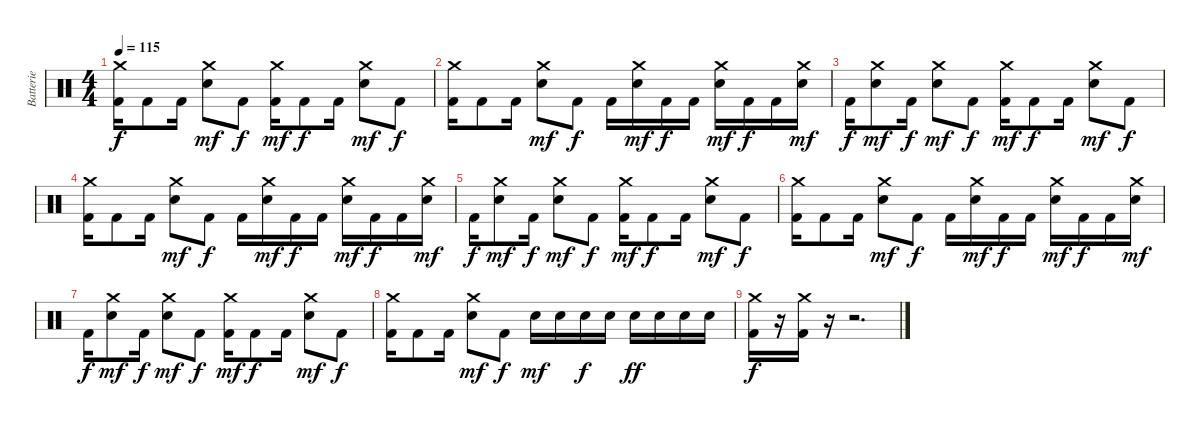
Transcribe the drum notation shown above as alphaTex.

\track ("Batterie" "Batterie") {instrument percussion}
\staff {score}
\articulation defaults
\ts (4 4)
\tempo 115
\clef neutral
\ks c
("Crash medium (hit)" "Kick (hit) 2").16{dy f} "Kick (hit) 2".8 "Kick (hit) 2".16 ("Crash medium (hit)" "Electric Snare (hit)").8{dy mf} "Kick (hit) 2".8{dy f} ("Crash medium (hit)" "Kick (hit) 2").16{dy mf} "Kick (hit) 2".8{dy f} "Kick (hit) 2".16 ("Crash medium (hit)" "Electric Snare (hit)").8{dy mf} "Kick (hit) 2".8{dy f} |
("Crash medium (hit)" "Kick (hit) 2").16 "Kick (hit) 2".8 "Kick (hit) 2".16 ("Crash medium (hit)" "Electric Snare (hit)").8{dy mf} "Kick (hit) 2".8{dy f} "Kick (hit) 2".16 ("Crash medium (hit)" "Electric Snare (hit)").16{dy mf} "Kick (hit) 2".16{dy f} "Kick (hit) 2".16 ("Crash medium (hit)" "Electric Snare (hit)").16{dy mf} "Kick (hit) 2".16{dy f} "Kick (hit) 2".16 ("Crash medium (hit)" "Electric Snare (hit)").16{dy mf} |
"Kick (hit) 2".16{dy f} ("Crash medium (hit)" "Electric Snare (hit)").8{dy mf} "Kick (hit) 2".16{dy f} ("Crash medium (hit)" "Electric Snare (hit)").8{dy mf} "Kick (hit) 2".8{dy f} ("Crash medium (hit)" "Kick (hit) 2").16{dy mf} "Kick (hit) 2".8{dy f} "Kick (hit) 2".16 ("Crash medium (hit)" "Electric Snare (hit)").8{dy mf} "Kick (hit) 2".8{dy f} |
("Crash medium (hit)" "Kick (hit) 2").16 "Kick (hit) 2".8 "Kick (hit) 2".16 ("Crash medium (hit)" "Electric Snare (hit)").8{dy mf} "Kick (hit) 2".8{dy f} "Kick (hit) 2".16 ("Crash medium (hit)" "Electric Snare (hit)").16{dy mf} "Kick (hit) 2".16{dy f} "Kick (hit) 2".16 ("Crash medium (hit)" "Electric Snare (hit)").16{dy mf} "Kick (hit) 2".16{dy f} "Kick (hit) 2".16 ("Crash medium (hit)" "Electric Snare (hit)").16{dy mf} |
"Kick (hit) 2".16{dy f} ("Crash medium (hit)" "Electric Snare (hit)").8{dy mf} "Kick (hit) 2".16{dy f} ("Crash medium (hit)" "Electric Snare (hit)").8{dy mf} "Kick (hit) 2".8{dy f} ("Crash medium (hit)" "Kick (hit) 2").16{dy mf} "Kick (hit) 2".8{dy f} "Kick (hit) 2".16 ("Crash medium (hit)" "Electric Snare (hit)").8{dy mf} "Kick (hit) 2".8{dy f} |
("Crash medium (hit)" "Kick (hit) 2").16 "Kick (hit) 2".8 "Kick (hit) 2".16 ("Crash medium (hit)" "Electric Snare (hit)").8{dy mf} "Kick (hit) 2".8{dy f} "Kick (hit) 2".16 ("Crash medium (hit)" "Electric Snare (hit)").16{dy mf} "Kick (hit) 2".16{dy f} "Kick (hit) 2".16 ("Crash medium (hit)" "Electric Snare (hit)").16{dy mf} "Kick (hit) 2".16{dy f} "Kick (hit) 2".16 ("Crash medium (hit)" "Electric Snare (hit)").16{dy mf} |
"Kick (hit) 2".16{dy f} ("Crash medium (hit)" "Electric Snare (hit)").8{dy mf} "Kick (hit) 2".16{dy f} ("Crash medium (hit)" "Electric Snare (hit)").8{dy mf} "Kick (hit) 2".8{dy f} ("Crash medium (hit)" "Kick (hit) 2").16{dy mf} "Kick (hit) 2".8{dy f} "Kick (hit) 2".16 ("Crash medium (hit)" "Electric Snare (hit)").8{dy mf} "Kick (hit) 2".8{dy f} |
("Crash medium (hit)" "Kick (hit) 2").16 "Kick (hit) 2".8 "Kick (hit) 2".16 ("Crash medium (hit)" "Electric Snare (hit)").8{dy mf} "Kick (hit) 2".8{dy f} "Electric Snare (hit)".16{dy mf} "Electric Snare (hit)".16 "Electric Snare (hit)".16{dy f} "Electric Snare (hit)".16 "Electric Snare (hit)".16{dy ff} "Electric Snare (hit)".16 "Electric Snare (hit)".16 "Electric Snare (hit)".16 |
("Crash medium (hit)" "Kick (hit) 2").16{dy f} r.16 ("Crash medium (hit)" "Kick (hit) 2").16 r.16 r.2{d}
